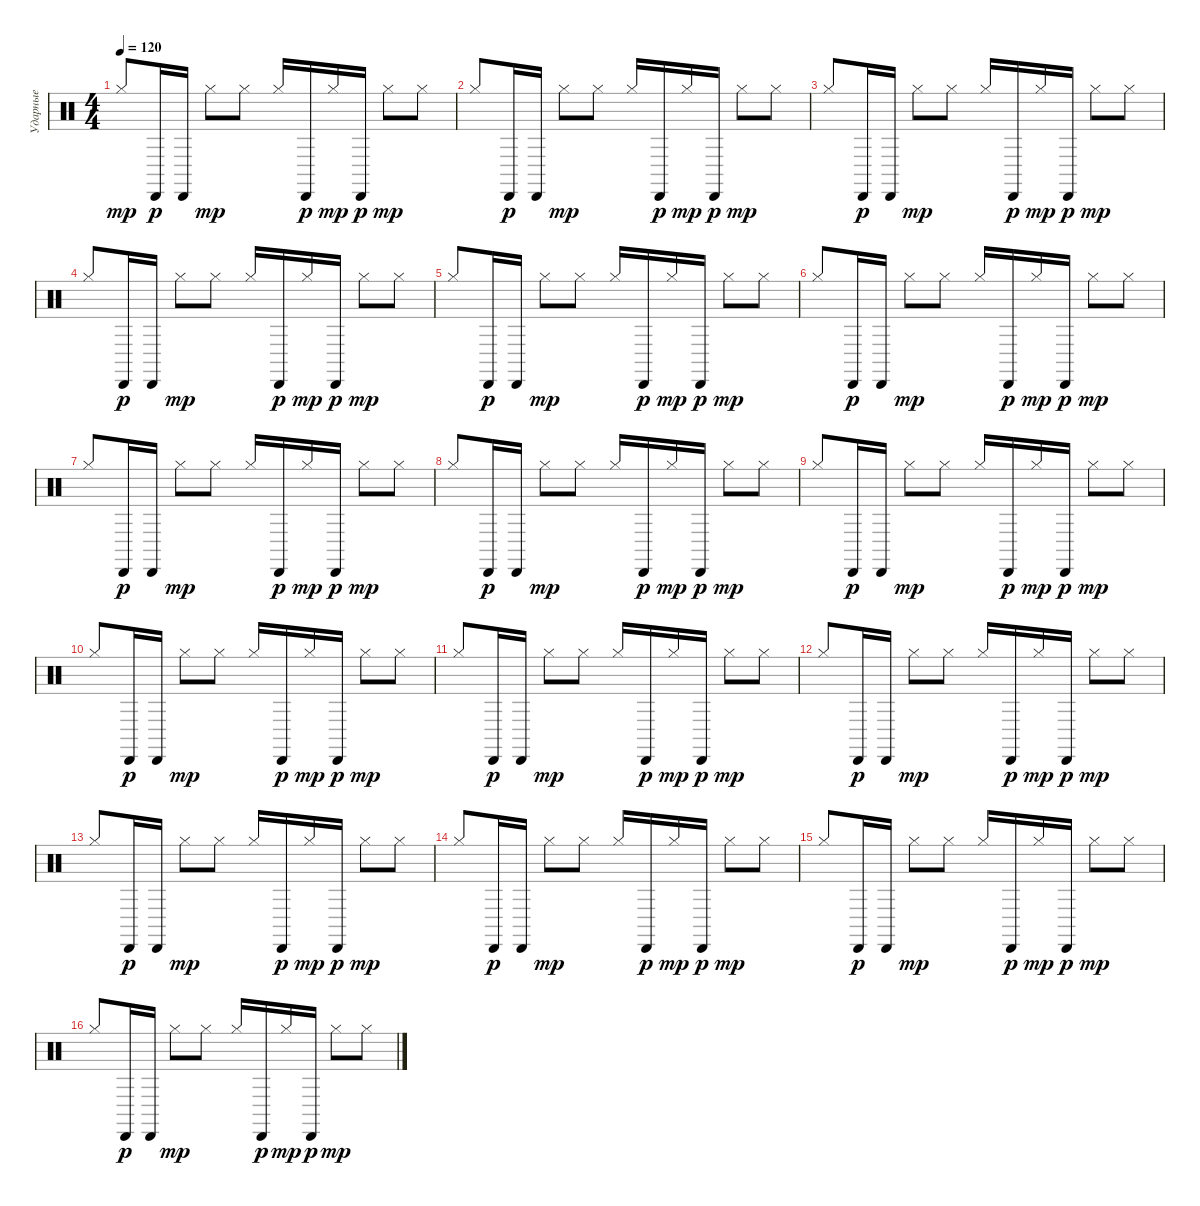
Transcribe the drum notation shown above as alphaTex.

\track ("Ударные" "Ударные") {instrument percussion}
\staff {score}
\articulation defaults
\ts (4 4)
\tempo 120
\clef neutral
\ks c "Hi-Hat (closed)".8{dy mp} "Cabasa (hit)".16{dy p} "Cabasa (hit)".16 "Hi-Hat (closed)".8{dy mp} "Hi-Hat (closed)".8 "Hi-Hat (closed)".16 "Cabasa (hit)".16{dy p} "Hi-Hat (closed)".16{dy mp} "Cabasa (hit)".16{dy p} "Hi-Hat (closed)".8{dy mp} "Hi-Hat (closed)".8
|
"Hi-Hat (closed)".8 "Cabasa (hit)".16{dy p} "Cabasa (hit)".16 "Hi-Hat (closed)".8{dy mp} "Hi-Hat (closed)".8 "Hi-Hat (closed)".16 "Cabasa (hit)".16{dy p} "Hi-Hat (closed)".16{dy mp} "Cabasa (hit)".16{dy p} "Hi-Hat (closed)".8{dy mp} "Hi-Hat (closed)".8 |
"Hi-Hat (closed)".8 "Cabasa (hit)".16{dy p} "Cabasa (hit)".16 "Hi-Hat (closed)".8{dy mp} "Hi-Hat (closed)".8 "Hi-Hat (closed)".16 "Cabasa (hit)".16{dy p} "Hi-Hat (closed)".16{dy mp} "Cabasa (hit)".16{dy p} "Hi-Hat (closed)".8{dy mp} "Hi-Hat (closed)".8 |
"Hi-Hat (closed)".8 "Cabasa (hit)".16{dy p} "Cabasa (hit)".16 "Hi-Hat (closed)".8{dy mp} "Hi-Hat (closed)".8 "Hi-Hat (closed)".16 "Cabasa (hit)".16{dy p} "Hi-Hat (closed)".16{dy mp} "Cabasa (hit)".16{dy p} "Hi-Hat (closed)".8{dy mp} "Hi-Hat (closed)".8 |
"Hi-Hat (closed)".8 "Cabasa (hit)".16{dy p} "Cabasa (hit)".16 "Hi-Hat (closed)".8{dy mp} "Hi-Hat (closed)".8 "Hi-Hat (closed)".16 "Cabasa (hit)".16{dy p} "Hi-Hat (closed)".16{dy mp} "Cabasa (hit)".16{dy p} "Hi-Hat (closed)".8{dy mp} "Hi-Hat (closed)".8 |
"Hi-Hat (closed)".8 "Cabasa (hit)".16{dy p} "Cabasa (hit)".16 "Hi-Hat (closed)".8{dy mp} "Hi-Hat (closed)".8 "Hi-Hat (closed)".16 "Cabasa (hit)".16{dy p} "Hi-Hat (closed)".16{dy mp} "Cabasa (hit)".16{dy p} "Hi-Hat (closed)".8{dy mp} "Hi-Hat (closed)".8 |
"Hi-Hat (closed)".8 "Cabasa (hit)".16{dy p} "Cabasa (hit)".16 "Hi-Hat (closed)".8{dy mp} "Hi-Hat (closed)".8 "Hi-Hat (closed)".16 "Cabasa (hit)".16{dy p} "Hi-Hat (closed)".16{dy mp} "Cabasa (hit)".16{dy p} "Hi-Hat (closed)".8{dy mp} "Hi-Hat (closed)".8 |
"Hi-Hat (closed)".8 "Cabasa (hit)".16{dy p} "Cabasa (hit)".16 "Hi-Hat (closed)".8{dy mp} "Hi-Hat (closed)".8 "Hi-Hat (closed)".16 "Cabasa (hit)".16{dy p} "Hi-Hat (closed)".16{dy mp} "Cabasa (hit)".16{dy p} "Hi-Hat (closed)".8{dy mp} "Hi-Hat (closed)".8 |
"Hi-Hat (closed)".8 "Cabasa (hit)".16{dy p} "Cabasa (hit)".16 "Hi-Hat (closed)".8{dy mp} "Hi-Hat (closed)".8 "Hi-Hat (closed)".16 "Cabasa (hit)".16{dy p} "Hi-Hat (closed)".16{dy mp} "Cabasa (hit)".16{dy p} "Hi-Hat (closed)".8{dy mp} "Hi-Hat (closed)".8 |
"Hi-Hat (closed)".8 "Cabasa (hit)".16{dy p} "Cabasa (hit)".16 "Hi-Hat (closed)".8{dy mp} "Hi-Hat (closed)".8 "Hi-Hat (closed)".16 "Cabasa (hit)".16{dy p} "Hi-Hat (closed)".16{dy mp} "Cabasa (hit)".16{dy p} "Hi-Hat (closed)".8{dy mp} "Hi-Hat (closed)".8 |
"Hi-Hat (closed)".8 "Cabasa (hit)".16{dy p} "Cabasa (hit)".16 "Hi-Hat (closed)".8{dy mp} "Hi-Hat (closed)".8 "Hi-Hat (closed)".16 "Cabasa (hit)".16{dy p} "Hi-Hat (closed)".16{dy mp} "Cabasa (hit)".16{dy p} "Hi-Hat (closed)".8{dy mp} "Hi-Hat (closed)".8 |
"Hi-Hat (closed)".8 "Cabasa (hit)".16{dy p} "Cabasa (hit)".16 "Hi-Hat (closed)".8{dy mp} "Hi-Hat (closed)".8 "Hi-Hat (closed)".16 "Cabasa (hit)".16{dy p} "Hi-Hat (closed)".16{dy mp} "Cabasa (hit)".16{dy p} "Hi-Hat (closed)".8{dy mp} "Hi-Hat (closed)".8 |
"Hi-Hat (closed)".8 "Cabasa (hit)".16{dy p} "Cabasa (hit)".16 "Hi-Hat (closed)".8{dy mp} "Hi-Hat (closed)".8 "Hi-Hat (closed)".16 "Cabasa (hit)".16{dy p} "Hi-Hat (closed)".16{dy mp} "Cabasa (hit)".16{dy p} "Hi-Hat (closed)".8{dy mp} "Hi-Hat (closed)".8 |
"Hi-Hat (closed)".8 "Cabasa (hit)".16{dy p} "Cabasa (hit)".16 "Hi-Hat (closed)".8{dy mp} "Hi-Hat (closed)".8 "Hi-Hat (closed)".16 "Cabasa (hit)".16{dy p} "Hi-Hat (closed)".16{dy mp} "Cabasa (hit)".16{dy p} "Hi-Hat (closed)".8{dy mp} "Hi-Hat (closed)".8 |
"Hi-Hat (closed)".8 "Cabasa (hit)".16{dy p} "Cabasa (hit)".16 "Hi-Hat (closed)".8{dy mp} "Hi-Hat (closed)".8 "Hi-Hat (closed)".16 "Cabasa (hit)".16{dy p} "Hi-Hat (closed)".16{dy mp} "Cabasa (hit)".16{dy p} "Hi-Hat (closed)".8{dy mp} "Hi-Hat (closed)".8 |
"Hi-Hat (closed)".8 "Cabasa (hit)".16{dy p} "Cabasa (hit)".16 "Hi-Hat (closed)".8{dy mp} "Hi-Hat (closed)".8 "Hi-Hat (closed)".16 "Cabasa (hit)".16{dy p} "Hi-Hat (closed)".16{dy mp} "Cabasa (hit)".16{dy p} "Hi-Hat (closed)".8{dy mp} "Hi-Hat (closed)".8
